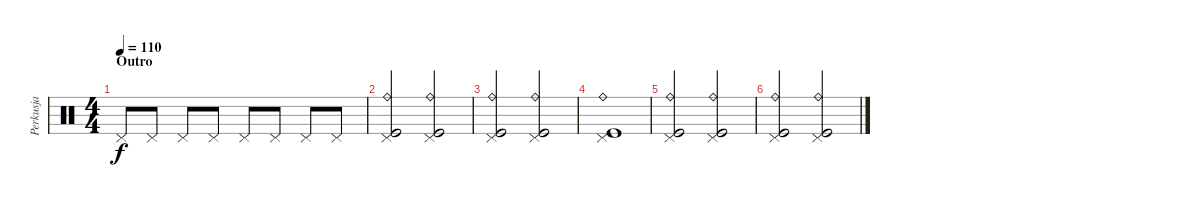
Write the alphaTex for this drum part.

\track ("Perkusja" "Perkusja") {instrument percussion}
\staff {score}
\articulation defaults
\ts (4 4)
\section ("" "Outro")
\tempo 110
\clef neutral
\ks c "Pedal Hi-Hat (hit)".8{dy f} "Pedal Hi-Hat (hit)".8 "Pedal Hi-Hat (hit)".8 "Pedal Hi-Hat (hit)".8 "Pedal Hi-Hat (hit)".8 "Pedal Hi-Hat (hit)".8 "Pedal Hi-Hat (hit)".8 "Pedal Hi-Hat (hit)".8
|
("Kick (hit)" "Ride (bell)" "Pedal Hi-Hat (hit)").2 ("Kick (hit)" "Ride (bell)" "Pedal Hi-Hat (hit)").2 |
("Kick (hit)" "Ride (bell)" "Pedal Hi-Hat (hit)").2 ("Kick (hit)" "Ride (bell)" "Pedal Hi-Hat (hit)").2 |
("Kick (hit)" "Ride (bell)" "Pedal Hi-Hat (hit)").1 |
("Kick (hit)" "Ride (bell)" "Pedal Hi-Hat (hit)").2 ("Kick (hit)" "Ride (bell)" "Pedal Hi-Hat (hit)").2 |
("Kick (hit)" "Ride (bell)" "Pedal Hi-Hat (hit)").2 ("Kick (hit)" "Ride (bell)" "Pedal Hi-Hat (hit)").2
